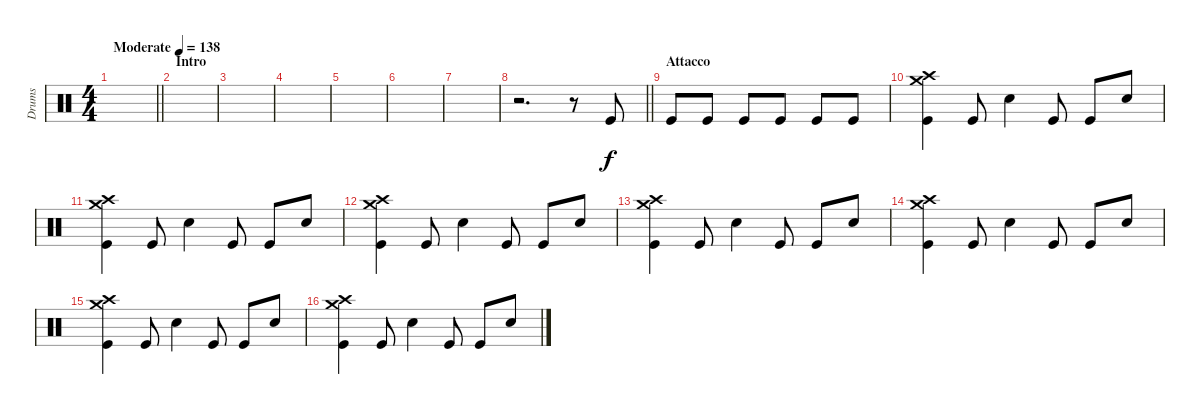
\track ("Drums" "Drums") {instrument percussion}
\staff {score}
\articulation defaults
\ts (4 4)
\tempo (138 "Moderate")
\clef neutral
\barLineRight lightlight
\ks c
|
\section ("" "Intro")
|
|
|
|
|
|
\barLineRight lightlight
r.2{d} r.8 "Kick (hit)".8 |
\section ("" "Attacco")
"Kick (hit)".8{dy f} "Kick (hit)".8 "Kick (hit)".8 "Kick (hit)".8 "Kick (hit)".8 "Kick (hit)".8 |
("Crash medium (hit)" "Crash high (hit)" "Kick (hit)").4 "Kick (hit)".8 "Electric Snare (hit)".4 "Kick (hit)".8 "Kick (hit)".8 "Electric Snare (hit)".8 |
("Crash medium (hit)" "Crash high (hit)" "Kick (hit)").4 "Kick (hit)".8 "Electric Snare (hit)".4 "Kick (hit)".8 "Kick (hit)".8 "Electric Snare (hit)".8 |
("Crash medium (hit)" "Crash high (hit)" "Kick (hit)").4 "Kick (hit)".8 "Electric Snare (hit)".4 "Kick (hit)".8 "Kick (hit)".8 "Electric Snare (hit)".8 |
("Crash medium (hit)" "Crash high (hit)" "Kick (hit)").4 "Kick (hit)".8 "Electric Snare (hit)".4 "Kick (hit)".8 "Kick (hit)".8 "Electric Snare (hit)".8 |
("Crash medium (hit)" "Crash high (hit)" "Kick (hit)").4 "Kick (hit)".8 "Electric Snare (hit)".4 "Kick (hit)".8 "Kick (hit)".8 "Electric Snare (hit)".8 |
("Crash medium (hit)" "Crash high (hit)" "Kick (hit)").4 "Kick (hit)".8 "Electric Snare (hit)".4 "Kick (hit)".8 "Kick (hit)".8 "Electric Snare (hit)".8 |
("Crash medium (hit)" "Crash high (hit)" "Kick (hit)").4 "Kick (hit)".8 "Electric Snare (hit)".4 "Kick (hit)".8 "Kick (hit)".8 "Electric Snare (hit)".8
